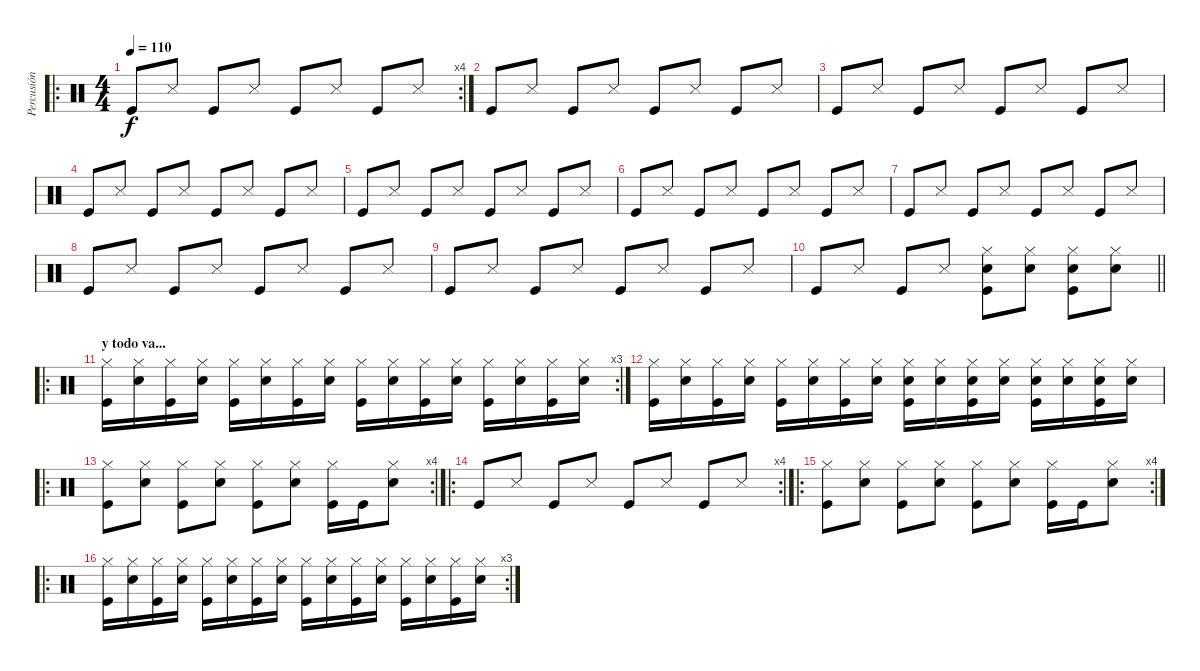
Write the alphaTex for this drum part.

\track ("Percusión" "Percusión") {instrument percussion}
\staff {score}
\articulation defaults
\ro
\rc 4
\ts (4 4)
\tempo 110
\clef neutral
\ks c "Kick (hit)".8{dy f} "Snare (side stick) 3".8 "Kick (hit)".8 "Snare (side stick) 3".8 "Kick (hit)".8 "Snare (side stick) 3".8 "Kick (hit)".8 "Snare (side stick) 3".8
|
"Kick (hit)".8 "Snare (side stick) 3".8 "Kick (hit)".8 "Snare (side stick) 3".8 "Kick (hit)".8 "Snare (side stick) 3".8 "Kick (hit)".8 "Snare (side stick) 3".8 |
"Kick (hit)".8 "Snare (side stick) 3".8 "Kick (hit)".8 "Snare (side stick) 3".8 "Kick (hit)".8 "Snare (side stick) 3".8 "Kick (hit)".8 "Snare (side stick) 3".8 |
"Kick (hit)".8 "Snare (side stick) 3".8 "Kick (hit)".8 "Snare (side stick) 3".8 "Kick (hit)".8 "Snare (side stick) 3".8 "Kick (hit)".8 "Snare (side stick) 3".8 |
"Kick (hit)".8 "Snare (side stick) 3".8 "Kick (hit)".8 "Snare (side stick) 3".8 "Kick (hit)".8 "Snare (side stick) 3".8 "Kick (hit)".8 "Snare (side stick) 3".8 |
"Kick (hit)".8 "Snare (side stick) 3".8 "Kick (hit)".8 "Snare (side stick) 3".8 "Kick (hit)".8 "Snare (side stick) 3".8 "Kick (hit)".8 "Snare (side stick) 3".8 |
"Kick (hit)".8 "Snare (side stick) 3".8 "Kick (hit)".8 "Snare (side stick) 3".8 "Kick (hit)".8 "Snare (side stick) 3".8 "Kick (hit)".8 "Snare (side stick) 3".8 |
"Kick (hit)".8 "Snare (side stick) 3".8 "Kick (hit)".8 "Snare (side stick) 3".8 "Kick (hit)".8 "Snare (side stick) 3".8 "Kick (hit)".8 "Snare (side stick) 3".8 |
"Kick (hit)".8 "Snare (side stick) 3".8 "Kick (hit)".8 "Snare (side stick) 3".8 "Kick (hit)".8 "Snare (side stick) 3".8 "Kick (hit)".8 "Snare (side stick) 3".8 |
\barLineRight lightlight "Kick (hit)".8 "Snare (side stick) 3".8 "Kick (hit)".8 "Snare (side stick) 3".8
("Hi-Hat (closed)" "Electric Snare (hit)" "Kick (hit)").8 ("Hi-Hat (closed)" "Electric Snare (hit)").8 ("Hi-Hat (closed)" "Electric Snare (hit)" "Kick (hit)").8 ("Hi-Hat (closed)" "Electric Snare (hit)").8 |
\ro
\rc 3
\section ("" "y todo va...")
("Hi-Hat (closed)" "Kick (hit)").16 ("Hi-Hat (closed)" "Electric Snare (hit)").16 ("Hi-Hat (closed)" "Kick (hit)").16 ("Hi-Hat (closed)" "Electric Snare (hit)").16 ("Hi-Hat (closed)" "Kick (hit)").16 ("Hi-Hat (closed)" "Electric Snare (hit)").16 ("Hi-Hat (closed)" "Kick (hit)").16 ("Hi-Hat (closed)" "Electric Snare (hit)").16 ("Hi-Hat (closed)" "Kick (hit)").16 ("Hi-Hat (closed)" "Electric Snare (hit)").16 ("Hi-Hat (closed)" "Kick (hit)").16 ("Hi-Hat (closed)" "Electric Snare (hit)").16 ("Hi-Hat (closed)" "Kick (hit)").16 ("Hi-Hat (closed)" "Electric Snare (hit)").16 ("Hi-Hat (closed)" "Kick (hit)").16 ("Hi-Hat (closed)" "Electric Snare (hit)").16 |
("Hi-Hat (closed)" "Kick (hit)").16 ("Hi-Hat (closed)" "Electric Snare (hit)").16 ("Hi-Hat (closed)" "Kick (hit)").16 ("Hi-Hat (closed)" "Electric Snare (hit)").16 ("Hi-Hat (closed)" "Kick (hit)").16 ("Hi-Hat (closed)" "Electric Snare (hit)").16 ("Hi-Hat (closed)" "Kick (hit)").16 ("Hi-Hat (closed)" "Electric Snare (hit)").16 ("Hi-Hat (closed)" "Electric Snare (hit)" "Kick (hit)").16 ("Hi-Hat (closed)" "Electric Snare (hit)").16 ("Hi-Hat (closed)" "Electric Snare (hit)" "Kick (hit)").16 ("Hi-Hat (closed)" "Electric Snare (hit)").16 ("Hi-Hat (closed)" "Electric Snare (hit)" "Kick (hit)").16 ("Hi-Hat (closed)" "Electric Snare (hit)").16 ("Hi-Hat (closed)" "Electric Snare (hit)" "Kick (hit)").16 ("Hi-Hat (closed)" "Electric Snare (hit)").16 |
\ro
\rc 4
("Hi-Hat (closed)" "Kick (hit)").8 ("Hi-Hat (closed)" "Electric Snare (hit)").8 ("Hi-Hat (closed)" "Kick (hit)").8 ("Hi-Hat (closed)" "Electric Snare (hit)").8 ("Hi-Hat (closed)" "Kick (hit)").8 ("Hi-Hat (closed)" "Electric Snare (hit)").8 ("Hi-Hat (closed)" "Kick (hit)").16 "Kick (hit)".16 ("Hi-Hat (closed)" "Electric Snare (hit)").8 |
\ro
\rc 4 "Kick (hit)".8 "Snare (side stick) 3".8 "Kick (hit)".8 "Snare (side stick) 3".8 "Kick (hit)".8 "Snare (side stick) 3".8 "Kick (hit)".8 "Snare (side stick) 3".8
|
\ro
\rc 4
("Hi-Hat (closed)" "Kick (hit)").8 ("Hi-Hat (closed)" "Electric Snare (hit)").8 ("Hi-Hat (closed)" "Kick (hit)").8 ("Hi-Hat (closed)" "Electric Snare (hit)").8 ("Hi-Hat (closed)" "Kick (hit)").8 ("Hi-Hat (closed)" "Electric Snare (hit)").8 ("Hi-Hat (closed)" "Kick (hit)").16 "Kick (hit)".16 ("Hi-Hat (closed)" "Electric Snare (hit)").8 |
\ro
\rc 3
("Hi-Hat (closed)" "Kick (hit)").16 ("Hi-Hat (closed)" "Electric Snare (hit)").16 ("Hi-Hat (closed)" "Kick (hit)").16 ("Hi-Hat (closed)" "Electric Snare (hit)").16 ("Hi-Hat (closed)" "Kick (hit)").16 ("Hi-Hat (closed)" "Electric Snare (hit)").16 ("Hi-Hat (closed)" "Kick (hit)").16 ("Hi-Hat (closed)" "Electric Snare (hit)").16 ("Hi-Hat (closed)" "Kick (hit)").16 ("Hi-Hat (closed)" "Electric Snare (hit)").16 ("Hi-Hat (closed)" "Kick (hit)").16 ("Hi-Hat (closed)" "Electric Snare (hit)").16 ("Hi-Hat (closed)" "Kick (hit)").16 ("Hi-Hat (closed)" "Electric Snare (hit)").16 ("Hi-Hat (closed)" "Kick (hit)").16 ("Hi-Hat (closed)" "Electric Snare (hit)").16
